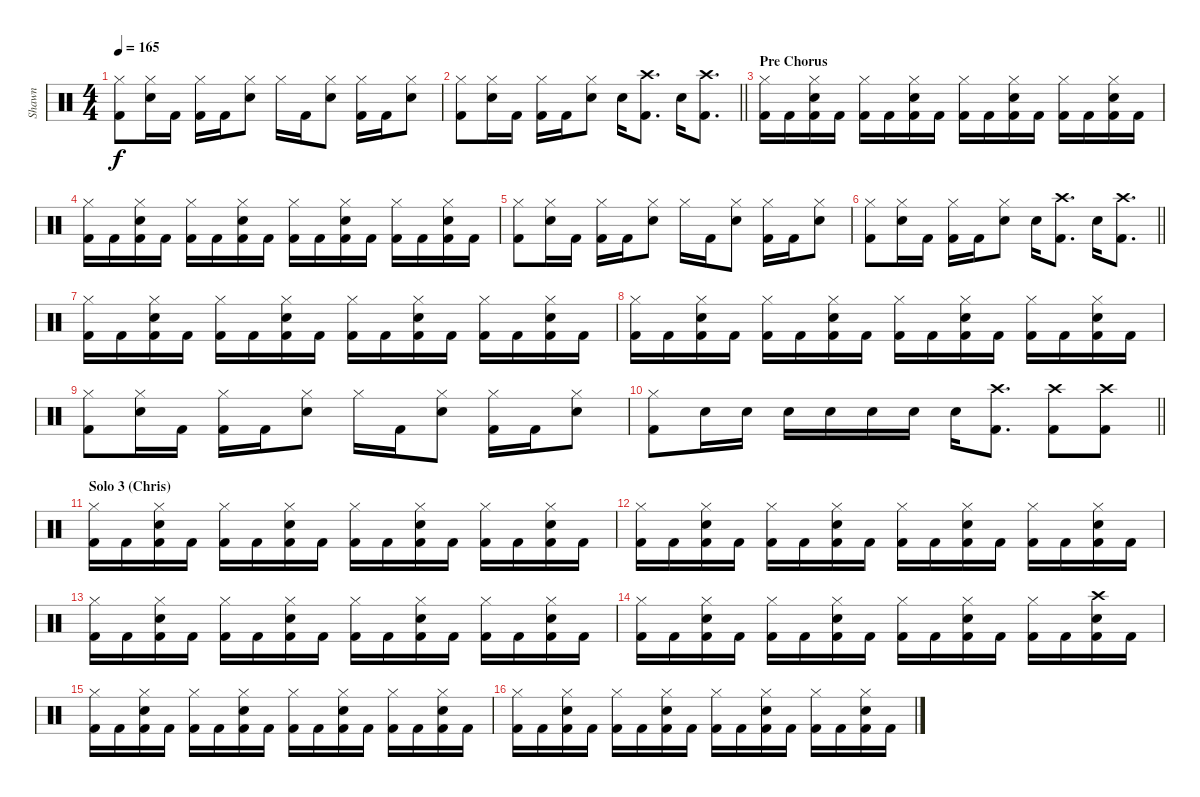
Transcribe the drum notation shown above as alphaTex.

\track ("Shawn" "Shawn") {instrument percussion}
\staff {score}
\articulation defaults
\ts (4 4)
\tempo 165
\clef neutral
\ks c
("Hi-Hat (closed)" "Kick (hit) 2").8{dy f} ("Hi-Hat (closed)" "Snare (hit) 2").16 "Kick (hit) 2".16 ("Hi-Hat (closed)" "Kick (hit) 2").16 "Kick (hit) 2".16 ("Hi-Hat (closed)" "Snare (hit) 2").8 "Hi-Hat (closed)".16 "Kick (hit) 2".16 ("Hi-Hat (closed)" "Snare (hit) 2").8 ("Hi-Hat (closed)" "Kick (hit) 2").16 "Kick (hit) 2".16 ("Hi-Hat (closed)" "Snare (hit) 2").8 |
\barLineRight lightlight
("Hi-Hat (closed)" "Kick (hit) 2").8 ("Hi-Hat (closed)" "Snare (hit) 2").16 "Kick (hit) 2".16 ("Hi-Hat (closed)" "Kick (hit) 2").16 "Kick (hit) 2".16 ("Hi-Hat (closed)" "Snare (hit) 2").8 "Snare (hit) 2".16 ("Crash high (hit)" "Kick (hit) 2").8{d} "Snare (hit) 2".16 ("Crash high (hit)" "Kick (hit) 2").8{d} |
\section ("" "Pre Chorus")
("Hi-Hat (closed)" "Kick (hit) 2").16 "Kick (hit) 2".16 ("Hi-Hat (closed)" "Snare (hit) 2" "Kick (hit) 2").16 "Kick (hit) 2".16 ("Hi-Hat (closed)" "Kick (hit) 2").16 "Kick (hit) 2".16 ("Hi-Hat (closed)" "Snare (hit) 2" "Kick (hit) 2").16 "Kick (hit) 2".16 ("Hi-Hat (closed)" "Kick (hit) 2").16 "Kick (hit) 2".16 ("Hi-Hat (closed)" "Snare (hit) 2" "Kick (hit) 2").16 "Kick (hit) 2".16 ("Hi-Hat (closed)" "Kick (hit) 2").16 "Kick (hit) 2".16 ("Hi-Hat (closed)" "Snare (hit) 2" "Kick (hit) 2").16 "Kick (hit) 2".16 |
("Hi-Hat (closed)" "Kick (hit) 2").16 "Kick (hit) 2".16 ("Hi-Hat (closed)" "Snare (hit) 2" "Kick (hit) 2").16 "Kick (hit) 2".16 ("Hi-Hat (closed)" "Kick (hit) 2").16 "Kick (hit) 2".16 ("Hi-Hat (closed)" "Snare (hit) 2" "Kick (hit) 2").16 "Kick (hit) 2".16 ("Hi-Hat (closed)" "Kick (hit) 2").16 "Kick (hit) 2".16 ("Hi-Hat (closed)" "Snare (hit) 2" "Kick (hit) 2").16 "Kick (hit) 2".16 ("Hi-Hat (closed)" "Kick (hit) 2").16 "Kick (hit) 2".16 ("Hi-Hat (closed)" "Snare (hit) 2" "Kick (hit) 2").16 "Kick (hit) 2".16 |
("Hi-Hat (closed)" "Kick (hit) 2").8 ("Hi-Hat (closed)" "Snare (hit) 2").16 "Kick (hit) 2".16 ("Hi-Hat (closed)" "Kick (hit) 2").16 "Kick (hit) 2".16 ("Hi-Hat (closed)" "Snare (hit) 2").8 "Hi-Hat (closed)".16 "Kick (hit) 2".16 ("Hi-Hat (closed)" "Snare (hit) 2").8 ("Hi-Hat (closed)" "Kick (hit) 2").16 "Kick (hit) 2".16 ("Hi-Hat (closed)" "Snare (hit) 2").8 |
\barLineRight lightlight
("Hi-Hat (closed)" "Kick (hit) 2").8 ("Hi-Hat (closed)" "Snare (hit) 2").16 "Kick (hit) 2".16 ("Hi-Hat (closed)" "Kick (hit) 2").16 "Kick (hit) 2".16 ("Hi-Hat (closed)" "Snare (hit) 2").8 "Snare (hit) 2".16 ("Crash high (hit)" "Kick (hit) 2").8{d} "Snare (hit) 2".16 ("Crash high (hit)" "Kick (hit) 2").8{d} |
("Hi-Hat (closed)" "Kick (hit) 2").16 "Kick (hit) 2".16 ("Hi-Hat (closed)" "Snare (hit) 2" "Kick (hit) 2").16 "Kick (hit) 2".16 ("Hi-Hat (closed)" "Kick (hit) 2").16 "Kick (hit) 2".16 ("Hi-Hat (closed)" "Snare (hit) 2" "Kick (hit) 2").16 "Kick (hit) 2".16 ("Hi-Hat (closed)" "Kick (hit) 2").16 "Kick (hit) 2".16 ("Hi-Hat (closed)" "Snare (hit) 2" "Kick (hit) 2").16 "Kick (hit) 2".16 ("Hi-Hat (closed)" "Kick (hit) 2").16 "Kick (hit) 2".16 ("Hi-Hat (closed)" "Snare (hit) 2" "Kick (hit) 2").16 "Kick (hit) 2".16 |
("Hi-Hat (closed)" "Kick (hit) 2").16 "Kick (hit) 2".16 ("Hi-Hat (closed)" "Snare (hit) 2" "Kick (hit) 2").16 "Kick (hit) 2".16 ("Hi-Hat (closed)" "Kick (hit) 2").16 "Kick (hit) 2".16 ("Hi-Hat (closed)" "Snare (hit) 2" "Kick (hit) 2").16 "Kick (hit) 2".16 ("Hi-Hat (closed)" "Kick (hit) 2").16 "Kick (hit) 2".16 ("Hi-Hat (closed)" "Snare (hit) 2" "Kick (hit) 2").16 "Kick (hit) 2".16 ("Hi-Hat (closed)" "Kick (hit) 2").16 "Kick (hit) 2".16 ("Hi-Hat (closed)" "Snare (hit) 2" "Kick (hit) 2").16 "Kick (hit) 2".16 |
("Hi-Hat (closed)" "Kick (hit) 2").8 ("Hi-Hat (closed)" "Snare (hit) 2").16 "Kick (hit) 2".16 ("Hi-Hat (closed)" "Kick (hit) 2").16 "Kick (hit) 2".16 ("Hi-Hat (closed)" "Snare (hit) 2").8 "Hi-Hat (closed)".16 "Kick (hit) 2".16 ("Hi-Hat (closed)" "Snare (hit) 2").8 ("Hi-Hat (closed)" "Kick (hit) 2").16 "Kick (hit) 2".16 ("Hi-Hat (closed)" "Snare (hit) 2").8 |
\barLineRight lightlight
("Hi-Hat (closed)" "Kick (hit) 2").8 "Snare (hit) 2".16 "Snare (hit) 2".16 "Snare (hit) 2".16 "Snare (hit) 2".16 "Snare (hit) 2".16 "Snare (hit) 2".16 "Snare (hit) 2".16 ("Crash high (hit)" "Kick (hit) 2").8{d} ("Crash high (hit)" "Kick (hit) 2").8 ("Crash high (hit)" "Kick (hit) 2").8 |
\section ("" "Solo 3 (Chris)")
("Hi-Hat (closed)" "Kick (hit) 2").16 "Kick (hit) 2".16 ("Hi-Hat (closed)" "Snare (hit) 2" "Kick (hit) 2").16 "Kick (hit) 2".16 ("Hi-Hat (closed)" "Kick (hit) 2").16 "Kick (hit) 2".16 ("Hi-Hat (closed)" "Snare (hit) 2" "Kick (hit) 2").16 "Kick (hit) 2".16 ("Hi-Hat (closed)" "Kick (hit) 2").16 "Kick (hit) 2".16 ("Hi-Hat (closed)" "Snare (hit) 2" "Kick (hit) 2").16 "Kick (hit) 2".16 ("Hi-Hat (closed)" "Kick (hit) 2").16 "Kick (hit) 2".16 ("Hi-Hat (closed)" "Snare (hit) 2" "Kick (hit) 2").16 "Kick (hit) 2".16 |
("Hi-Hat (closed)" "Kick (hit) 2").16 "Kick (hit) 2".16 ("Hi-Hat (closed)" "Snare (hit) 2" "Kick (hit) 2").16 "Kick (hit) 2".16 ("Hi-Hat (closed)" "Kick (hit) 2").16 "Kick (hit) 2".16 ("Hi-Hat (closed)" "Snare (hit) 2" "Kick (hit) 2").16 "Kick (hit) 2".16 ("Hi-Hat (closed)" "Kick (hit) 2").16 "Kick (hit) 2".16 ("Hi-Hat (closed)" "Snare (hit) 2" "Kick (hit) 2").16 "Kick (hit) 2".16 ("Hi-Hat (closed)" "Kick (hit) 2").16 "Kick (hit) 2".16 ("Hi-Hat (closed)" "Snare (hit) 2" "Kick (hit) 2").16 "Kick (hit) 2".16 |
("Hi-Hat (closed)" "Kick (hit) 2").16 "Kick (hit) 2".16 ("Hi-Hat (closed)" "Snare (hit) 2" "Kick (hit) 2").16 "Kick (hit) 2".16 ("Hi-Hat (closed)" "Kick (hit) 2").16 "Kick (hit) 2".16 ("Hi-Hat (closed)" "Snare (hit) 2" "Kick (hit) 2").16 "Kick (hit) 2".16 ("Hi-Hat (closed)" "Kick (hit) 2").16 "Kick (hit) 2".16 ("Hi-Hat (closed)" "Snare (hit) 2" "Kick (hit) 2").16 "Kick (hit) 2".16 ("Hi-Hat (closed)" "Kick (hit) 2").16 "Kick (hit) 2".16 ("Hi-Hat (closed)" "Snare (hit) 2" "Kick (hit) 2").16 "Kick (hit) 2".16 |
("Hi-Hat (closed)" "Kick (hit) 2").16 "Kick (hit) 2".16 ("Hi-Hat (closed)" "Snare (hit) 2" "Kick (hit) 2").16 "Kick (hit) 2".16 ("Hi-Hat (closed)" "Kick (hit) 2").16 "Kick (hit) 2".16 ("Hi-Hat (closed)" "Snare (hit) 2" "Kick (hit) 2").16 "Kick (hit) 2".16 ("Hi-Hat (closed)" "Kick (hit) 2").16 "Kick (hit) 2".16 ("Hi-Hat (closed)" "Snare (hit) 2" "Kick (hit) 2").16 "Kick (hit) 2".16 ("Hi-Hat (closed)" "Kick (hit) 2").16 "Kick (hit) 2".16 ("Crash high (hit)" "Snare (hit) 2" "Kick (hit) 2").16 "Kick (hit) 2".16 |
("Hi-Hat (closed)" "Kick (hit) 2").16 "Kick (hit) 2".16 ("Hi-Hat (closed)" "Snare (hit) 2" "Kick (hit) 2").16 "Kick (hit) 2".16 ("Hi-Hat (closed)" "Kick (hit) 2").16 "Kick (hit) 2".16 ("Hi-Hat (closed)" "Snare (hit) 2" "Kick (hit) 2").16 "Kick (hit) 2".16 ("Hi-Hat (closed)" "Kick (hit) 2").16 "Kick (hit) 2".16 ("Hi-Hat (closed)" "Snare (hit) 2" "Kick (hit) 2").16 "Kick (hit) 2".16 ("Hi-Hat (closed)" "Kick (hit) 2").16 "Kick (hit) 2".16 ("Hi-Hat (closed)" "Snare (hit) 2" "Kick (hit) 2").16 "Kick (hit) 2".16 |
("Hi-Hat (closed)" "Kick (hit) 2").16 "Kick (hit) 2".16 ("Hi-Hat (closed)" "Snare (hit) 2" "Kick (hit) 2").16 "Kick (hit) 2".16 ("Hi-Hat (closed)" "Kick (hit) 2").16 "Kick (hit) 2".16 ("Hi-Hat (closed)" "Snare (hit) 2" "Kick (hit) 2").16 "Kick (hit) 2".16 ("Hi-Hat (closed)" "Kick (hit) 2").16 "Kick (hit) 2".16 ("Hi-Hat (closed)" "Snare (hit) 2" "Kick (hit) 2").16 "Kick (hit) 2".16 ("Hi-Hat (closed)" "Kick (hit) 2").16 "Kick (hit) 2".16 ("Hi-Hat (closed)" "Snare (hit) 2" "Kick (hit) 2").16 "Kick (hit) 2".16
